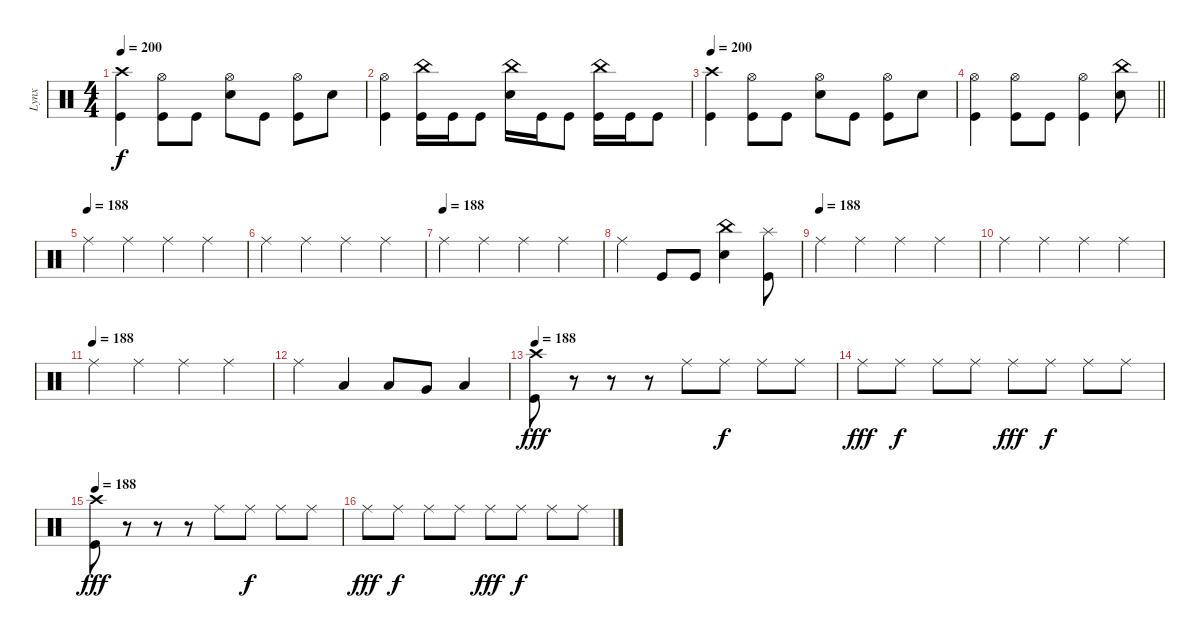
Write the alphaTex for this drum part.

\track ("Lynx" "Lynx") {instrument percussion}
\staff {score}
\articulation defaults
\ts (4 4)
\tempo 200
\clef neutral
\ks c
("Kick (hit)" "Crash high (hit)").4{dy f} ("Kick (hit)" "Hi-Hat (open)").8 "Kick (hit)".8 ("Electric Snare (hit)" "Hi-Hat (open)").8 "Kick (hit)".8 ("Kick (hit)" "Hi-Hat (open)").8 "Electric Snare (hit)".8 |
("Kick (hit)" "Hi-Hat (open)").4 ("Kick (hit)" "China (hit)").16 "Kick (hit)".16 "Kick (hit)".8 ("Electric Snare (hit)" "China (hit)").16 "Kick (hit)".16 "Kick (hit)".8 ("Kick (hit)" "China (hit)").16 "Kick (hit)".16 "Kick (hit)".8 |
\tempo 200
("Kick (hit)" "Crash high (hit)").4 ("Kick (hit)" "Hi-Hat (open)").8 "Kick (hit)".8 ("Electric Snare (hit)" "Hi-Hat (open)").8 "Kick (hit)".8 ("Kick (hit)" "Hi-Hat (open)").8 "Electric Snare (hit)".8 |
\barLineRight lightlight
("Kick (hit)" "Hi-Hat (open)").4 ("Kick (hit)" "Hi-Hat (open)").8 "Kick (hit)".8 ("Kick (hit)" "Hi-Hat (open)").4 ("China (hit)" "Electric Snare (hit)").8 |
\section ("" "")
\tempo (188)
"Ride (middle)".4 "Ride (middle)".4 "Ride (middle)".4 "Ride (middle)".4 |
"Ride (middle)".4 "Ride (middle)".4 "Ride (middle)".4 "Ride (middle)".4 |
\tempo (188)
"Ride (middle)".4 "Ride (middle)".4 "Ride (middle)".4 "Ride (middle)".4 |
"Ride (middle)".4 "Kick (hit)".8 "Kick (hit)".8 ("Electric Snare (hit)" "China (hit)").4 ("Kick (hit)" "Splash (hit)").8 |
\tempo (188)
"Ride (middle)".4 "Ride (middle)".4 "Ride (middle)".4 "Ride (middle)".4 |
"Ride (middle)".4 "Ride (middle)".4 "Ride (middle)".4 "Ride (middle)".4 |
\tempo (188)
"Ride (middle)".4 "Ride (middle)".4 "Ride (middle)".4 "Ride (middle)".4 |
"Ride (middle)".4 "Low Tom (hit)".4 "Low Tom (hit)".8 "Very Low Tom (hit)".8 "Low Floor Tom (hit)".4 |
\tempo 188
("Kick (hit)" "Crash high (hit)").8{dy fff} r.8 r.8 r.8 "Ride (middle)".8 "Ride (middle)".8{dy f} "Ride (middle)".8 "Ride (middle)".8 |
"Ride (middle)".8{dy fff} "Ride (middle)".8{dy f} "Ride (middle)".8 "Ride (middle)".8 "Ride (middle)".8{dy fff} "Ride (middle)".8{dy f} "Ride (middle)".8 "Ride (middle)".8 |
\tempo 188
("Kick (hit)" "Crash high (hit)").8{dy fff} r.8 r.8 r.8 "Ride (middle)".8 "Ride (middle)".8{dy f} "Ride (middle)".8 "Ride (middle)".8 |
"Ride (middle)".8{dy fff} "Ride (middle)".8{dy f} "Ride (middle)".8 "Ride (middle)".8 "Ride (middle)".8{dy fff} "Ride (middle)".8{dy f} "Ride (middle)".8 "Ride (middle)".8
